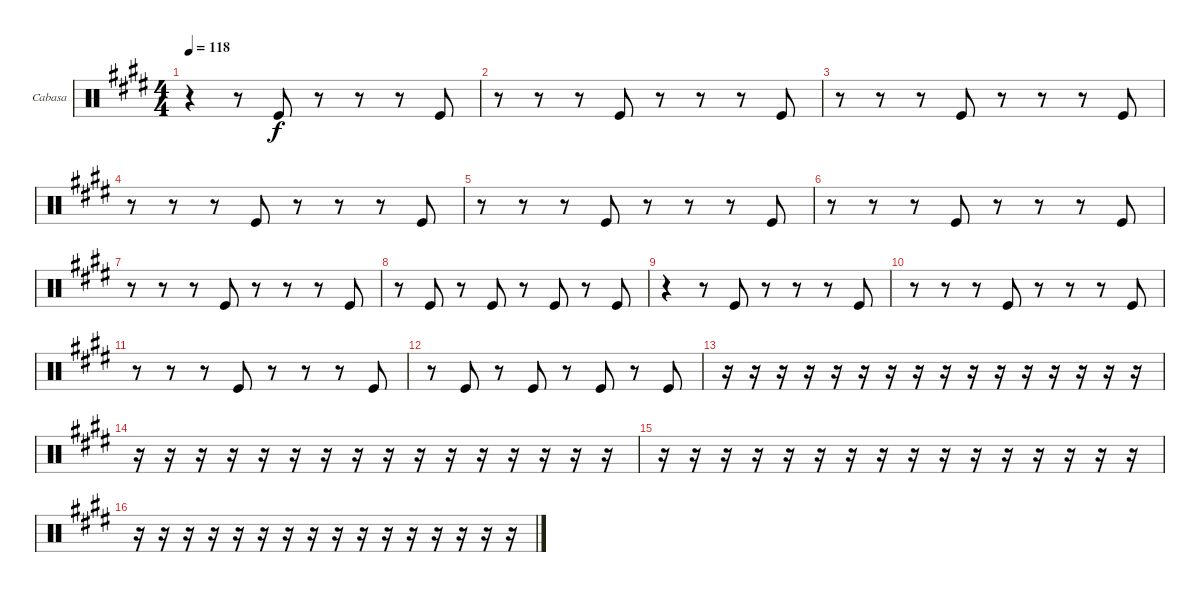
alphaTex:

\bracketExtendMode groupsimilarinstruments
\firstSystemTrackNameOrientation horizontal
\otherSystemsTrackNameOrientation horizontal
\track ("Cabasa" "Cabasa") {instrument percussion}
\staff {score}
\articulation defaults
\ts (4 4)
\tempo 118
\clef neutral
\ks e
r.4{dy f} r.8 "Kick (hit)".8 r.8 r.8 r.8 "Kick (hit)".8 |
r.8 r.8 r.8 "Kick (hit)".8 r.8 r.8 r.8 "Kick (hit)".8 |
r.8 r.8 r.8 "Kick (hit)".8 r.8 r.8 r.8 "Kick (hit)".8 |
r.8 r.8 r.8 "Kick (hit)".8 r.8 r.8 r.8 "Kick (hit)".8 |
r.8 r.8 r.8 "Kick (hit)".8 r.8 r.8 r.8 "Kick (hit)".8 |
r.8 r.8 r.8 "Kick (hit)".8 r.8 r.8 r.8 "Kick (hit)".8 |
r.8 r.8 r.8 "Kick (hit)".8 r.8 r.8 r.8 "Kick (hit)".8 |
r.8 "Kick (hit)".8 r.8 "Kick (hit)".8 r.8 "Kick (hit)".8 r.8 "Kick (hit)".8 |
r.4 r.8 "Kick (hit)".8 r.8 r.8 r.8 "Kick (hit)".8 |
r.8 r.8 r.8 "Kick (hit)".8 r.8 r.8 r.8 "Kick (hit)".8 |
r.8 r.8 r.8 "Kick (hit)".8 r.8 r.8 r.8 "Kick (hit)".8 |
r.8 "Kick (hit)".8 r.8 "Kick (hit)".8 r.8 "Kick (hit)".8 r.8 "Kick (hit)".8 |
r.16 r.16 r.16 r.16 r.16 r.16 r.16 r.16 r.16 r.16 r.16 r.16 r.16 r.16 r.16 r.16 |
r.16 r.16 r.16 r.16 r.16 r.16 r.16 r.16 r.16 r.16 r.16 r.16 r.16 r.16 r.16 r.16 |
r.16 r.16 r.16 r.16 r.16 r.16 r.16 r.16 r.16 r.16 r.16 r.16 r.16 r.16 r.16 r.16 |
r.16 r.16 r.16 r.16 r.16 r.16 r.16 r.16 r.16 r.16 r.16 r.16 r.16 r.16 r.16 r.16
